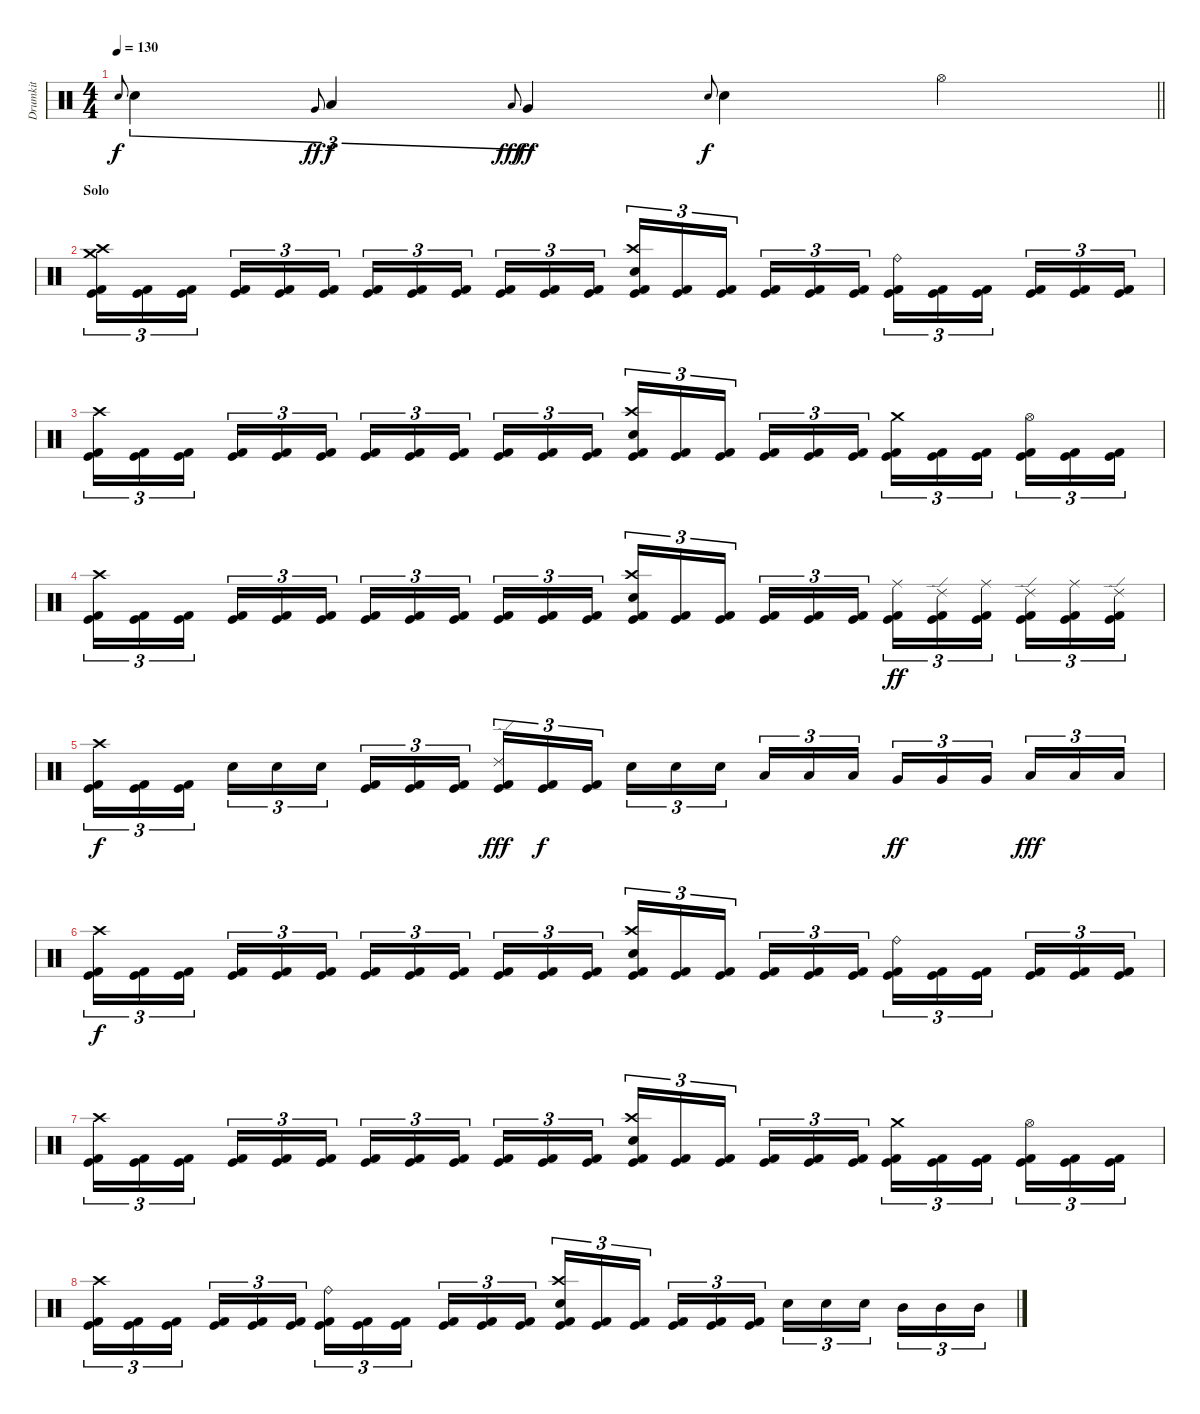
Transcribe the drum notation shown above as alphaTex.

\track ("Drumkit" "Drumkit") {instrument percussion}
\staff {score}
\articulation defaults
\ts (4 4)
\tempo 130
\clef neutral
\barLineRight lightlight
\ks c "Electric Snare (hit)".8{gr onbeat dy f} "Electric Snare (hit)".4{tu (3 2)} "Very Low Tom (hit)".8{gr onbeat dy ff} "Low Tom (hit)".4{tu (3 2) dy f} "Low Floor Tom (hit)".8{gr onbeat dy fff} "Very Low Tom (hit)".4{tu (3 2) dy ff} "Electric Snare (hit)".8{gr onbeat dy f} "Electric Snare (hit)".4 "Hi-Hat (open)".4
|
\section ("" "Solo")
("Crash high (hit)" "Crash medium (hit)" "Kick (hit)" "Kick (hit) 2").16{tu (3 2)} ("Kick (hit)" "Kick (hit) 2").16{tu (3 2)} ("Kick (hit)" "Kick (hit) 2").16{tu (3 2) beam splitsecondary} ("Kick (hit)" "Kick (hit) 2").16{tu (3 2)} ("Kick (hit)" "Kick (hit) 2").16{tu (3 2)} ("Kick (hit)" "Kick (hit) 2").16{tu (3 2)} ("Kick (hit)" "Kick (hit) 2").16{tu (3 2)} ("Kick (hit)" "Kick (hit) 2").16{tu (3 2)} ("Kick (hit)" "Kick (hit) 2").16{tu (3 2) beam splitsecondary} ("Kick (hit)" "Kick (hit) 2").16{tu (3 2)} ("Kick (hit)" "Kick (hit) 2").16{tu (3 2)} ("Kick (hit)" "Kick (hit) 2").16{tu (3 2)} ("Crash high (hit)" "Electric Snare (hit)" "Kick (hit)" "Kick (hit) 2").16{tu (3 2)} ("Kick (hit)" "Kick (hit) 2").16{tu (3 2)} ("Kick (hit)" "Kick (hit) 2").16{tu (3 2) beam splitsecondary} ("Kick (hit)" "Kick (hit) 2").16{tu (3 2)} ("Kick (hit)" "Kick (hit) 2").16{tu (3 2)} ("Kick (hit)" "Kick (hit) 2").16{tu (3 2)} ("Ride (bell)" "Kick (hit)" "Kick (hit) 2").16{tu (3 2)} ("Kick (hit)" "Kick (hit) 2").16{tu (3 2)} ("Kick (hit)" "Kick (hit) 2").16{tu (3 2) beam splitsecondary} ("Kick (hit)" "Kick (hit) 2").16{tu (3 2)} ("Kick (hit)" "Kick (hit) 2").16{tu (3 2)} ("Kick (hit)" "Kick (hit) 2").16{tu (3 2)} |
("Crash high (hit)" "Kick (hit)" "Kick (hit) 2").16{tu (3 2)} ("Kick (hit)" "Kick (hit) 2").16{tu (3 2)} ("Kick (hit)" "Kick (hit) 2").16{tu (3 2) beam splitsecondary} ("Kick (hit)" "Kick (hit) 2").16{tu (3 2)} ("Kick (hit)" "Kick (hit) 2").16{tu (3 2)} ("Kick (hit)" "Kick (hit) 2").16{tu (3 2)} ("Kick (hit)" "Kick (hit) 2").16{tu (3 2)} ("Kick (hit)" "Kick (hit) 2").16{tu (3 2)} ("Kick (hit)" "Kick (hit) 2").16{tu (3 2) beam splitsecondary} ("Kick (hit)" "Kick (hit) 2").16{tu (3 2)} ("Kick (hit)" "Kick (hit) 2").16{tu (3 2)} ("Kick (hit)" "Kick (hit) 2").16{tu (3 2)} ("Crash high (hit)" "Electric Snare (hit)" "Kick (hit)" "Kick (hit) 2").16{tu (3 2)} ("Kick (hit)" "Kick (hit) 2").16{tu (3 2)} ("Kick (hit)" "Kick (hit) 2").16{tu (3 2) beam splitsecondary} ("Kick (hit)" "Kick (hit) 2").16{tu (3 2)} ("Kick (hit)" "Kick (hit) 2").16{tu (3 2)} ("Kick (hit)" "Kick (hit) 2").16{tu (3 2)} ("Crash medium (hit)" "Kick (hit)" "Kick (hit) 2").16{tu (3 2)} ("Kick (hit)" "Kick (hit) 2").16{tu (3 2)} ("Kick (hit)" "Kick (hit) 2").16{tu (3 2) beam splitsecondary} ("Hi-Hat (open)" "Kick (hit)" "Kick (hit) 2").16{tu (3 2)} ("Kick (hit)" "Kick (hit) 2").16{tu (3 2)} ("Kick (hit)" "Kick (hit) 2").16{tu (3 2)} |
("Crash high (hit)" "Kick (hit)" "Kick (hit) 2").16{tu (3 2)} ("Kick (hit)" "Kick (hit) 2").16{tu (3 2)} ("Kick (hit)" "Kick (hit) 2").16{tu (3 2) beam splitsecondary} ("Kick (hit)" "Kick (hit) 2").16{tu (3 2)} ("Kick (hit)" "Kick (hit) 2").16{tu (3 2)} ("Kick (hit)" "Kick (hit) 2").16{tu (3 2)} ("Kick (hit)" "Kick (hit) 2").16{tu (3 2)} ("Kick (hit)" "Kick (hit) 2").16{tu (3 2)} ("Kick (hit)" "Kick (hit) 2").16{tu (3 2) beam splitsecondary} ("Kick (hit)" "Kick (hit) 2").16{tu (3 2)} ("Kick (hit)" "Kick (hit) 2").16{tu (3 2)} ("Kick (hit)" "Kick (hit) 2").16{tu (3 2)} ("Crash high (hit)" "Electric Snare (hit)" "Kick (hit)" "Kick (hit) 2").16{tu (3 2)} ("Kick (hit)" "Kick (hit) 2").16{tu (3 2)} ("Kick (hit)" "Kick (hit) 2").16{tu (3 2) beam splitsecondary} ("Kick (hit)" "Kick (hit) 2").16{tu (3 2)} ("Kick (hit)" "Kick (hit) 2").16{tu (3 2)} ("Kick (hit)" "Kick (hit) 2").16{tu (3 2)} ("Ride (middle)" "Kick (hit)" "Kick (hit) 2").16{tu (3 2) dy ff} ("Ride (edge) 2" "Kick (hit)" "Kick (hit) 2").16{tu (3 2)} ("Ride (middle)" "Kick (hit)" "Kick (hit) 2").16{tu (3 2) beam splitsecondary} ("Ride (edge) 2" "Kick (hit)" "Kick (hit) 2").16{tu (3 2)} ("Ride (middle)" "Kick (hit)" "Kick (hit) 2").16{tu (3 2)} ("Ride (edge) 2" "Kick (hit)" "Kick (hit) 2").16{tu (3 2)} |
("Crash high (hit)" "Kick (hit)" "Kick (hit) 2").16{tu (3 2) dy f} ("Kick (hit)" "Kick (hit) 2").16{tu (3 2)} ("Kick (hit)" "Kick (hit) 2").16{tu (3 2) beam splitsecondary} "Electric Snare (hit)".16{tu (3 2)} "Electric Snare (hit)".16{tu (3 2)} "Electric Snare (hit)".16{tu (3 2)} ("Kick (hit)" "Kick (hit) 2").16{tu (3 2)} ("Kick (hit)" "Kick (hit) 2").16{tu (3 2)} ("Kick (hit)" "Kick (hit) 2").16{tu (3 2) beam splitsecondary} ("Ride (edge) 2" "Kick (hit)" "Kick (hit) 2").16{tu (3 2) dy fff} ("Kick (hit)" "Kick (hit) 2").16{tu (3 2) dy f} ("Kick (hit)" "Kick (hit) 2").16{tu (3 2)} "Electric Snare (hit)".16{tu (3 2)} "Electric Snare (hit)".16{tu (3 2)} "Electric Snare (hit)".16{tu (3 2) beam splitsecondary} "Low Tom (hit)".16{tu (3 2)} "Low Tom (hit)".16{tu (3 2)} "Low Tom (hit)".16{tu (3 2)} "Very Low Tom (hit)".16{tu (3 2) dy ff} "Very Low Tom (hit)".16{tu (3 2)} "Very Low Tom (hit)".16{tu (3 2) beam splitsecondary} "Low Floor Tom (hit)".16{tu (3 2) dy fff} "Low Floor Tom (hit)".16{tu (3 2)} "Low Floor Tom (hit)".16{tu (3 2)} |
("Crash high (hit)" "Kick (hit)" "Kick (hit) 2").16{tu (3 2) dy f} ("Kick (hit)" "Kick (hit) 2").16{tu (3 2)} ("Kick (hit)" "Kick (hit) 2").16{tu (3 2) beam splitsecondary} ("Kick (hit)" "Kick (hit) 2").16{tu (3 2)} ("Kick (hit)" "Kick (hit) 2").16{tu (3 2)} ("Kick (hit)" "Kick (hit) 2").16{tu (3 2)} ("Kick (hit)" "Kick (hit) 2").16{tu (3 2)} ("Kick (hit)" "Kick (hit) 2").16{tu (3 2)} ("Kick (hit)" "Kick (hit) 2").16{tu (3 2) beam splitsecondary} ("Kick (hit)" "Kick (hit) 2").16{tu (3 2)} ("Kick (hit)" "Kick (hit) 2").16{tu (3 2)} ("Kick (hit)" "Kick (hit) 2").16{tu (3 2)} ("Crash high (hit)" "Electric Snare (hit)" "Kick (hit)" "Kick (hit) 2").16{tu (3 2)} ("Kick (hit)" "Kick (hit) 2").16{tu (3 2)} ("Kick (hit)" "Kick (hit) 2").16{tu (3 2) beam splitsecondary} ("Kick (hit)" "Kick (hit) 2").16{tu (3 2)} ("Kick (hit)" "Kick (hit) 2").16{tu (3 2)} ("Kick (hit)" "Kick (hit) 2").16{tu (3 2)} ("Ride (bell)" "Kick (hit)" "Kick (hit) 2").16{tu (3 2)} ("Kick (hit)" "Kick (hit) 2").16{tu (3 2)} ("Kick (hit)" "Kick (hit) 2").16{tu (3 2) beam splitsecondary} ("Kick (hit)" "Kick (hit) 2").16{tu (3 2)} ("Kick (hit)" "Kick (hit) 2").16{tu (3 2)} ("Kick (hit)" "Kick (hit) 2").16{tu (3 2)} |
("Crash high (hit)" "Kick (hit)" "Kick (hit) 2").16{tu (3 2)} ("Kick (hit)" "Kick (hit) 2").16{tu (3 2)} ("Kick (hit)" "Kick (hit) 2").16{tu (3 2) beam splitsecondary} ("Kick (hit)" "Kick (hit) 2").16{tu (3 2)} ("Kick (hit)" "Kick (hit) 2").16{tu (3 2)} ("Kick (hit)" "Kick (hit) 2").16{tu (3 2)} ("Kick (hit)" "Kick (hit) 2").16{tu (3 2)} ("Kick (hit)" "Kick (hit) 2").16{tu (3 2)} ("Kick (hit)" "Kick (hit) 2").16{tu (3 2) beam splitsecondary} ("Kick (hit)" "Kick (hit) 2").16{tu (3 2)} ("Kick (hit)" "Kick (hit) 2").16{tu (3 2)} ("Kick (hit)" "Kick (hit) 2").16{tu (3 2)} ("Crash high (hit)" "Electric Snare (hit)" "Kick (hit)" "Kick (hit) 2").16{tu (3 2)} ("Kick (hit)" "Kick (hit) 2").16{tu (3 2)} ("Kick (hit)" "Kick (hit) 2").16{tu (3 2) beam splitsecondary} ("Kick (hit)" "Kick (hit) 2").16{tu (3 2)} ("Kick (hit)" "Kick (hit) 2").16{tu (3 2)} ("Kick (hit)" "Kick (hit) 2").16{tu (3 2)} ("Crash medium (hit)" "Kick (hit)" "Kick (hit) 2").16{tu (3 2)} ("Kick (hit)" "Kick (hit) 2").16{tu (3 2)} ("Kick (hit)" "Kick (hit) 2").16{tu (3 2) beam splitsecondary} ("Hi-Hat (open)" "Kick (hit)" "Kick (hit) 2").16{tu (3 2)} ("Kick (hit)" "Kick (hit) 2").16{tu (3 2)} ("Kick (hit)" "Kick (hit) 2").16{tu (3 2)} |
("Crash high (hit)" "Kick (hit)" "Kick (hit) 2").16{tu (3 2)} ("Kick (hit)" "Kick (hit) 2").16{tu (3 2)} ("Kick (hit)" "Kick (hit) 2").16{tu (3 2) beam splitsecondary} ("Kick (hit)" "Kick (hit) 2").16{tu (3 2)} ("Kick (hit)" "Kick (hit) 2").16{tu (3 2)} ("Kick (hit)" "Kick (hit) 2").16{tu (3 2)} ("Ride (bell)" "Kick (hit)" "Kick (hit) 2").16{tu (3 2)} ("Kick (hit)" "Kick (hit) 2").16{tu (3 2)} ("Kick (hit)" "Kick (hit) 2").16{tu (3 2) beam splitsecondary} ("Kick (hit)" "Kick (hit) 2").16{tu (3 2)} ("Kick (hit)" "Kick (hit) 2").16{tu (3 2)} ("Kick (hit)" "Kick (hit) 2").16{tu (3 2)} ("Crash high (hit)" "Electric Snare (hit)" "Kick (hit)" "Kick (hit) 2").16{tu (3 2)} ("Kick (hit)" "Kick (hit) 2").16{tu (3 2)} ("Kick (hit)" "Kick (hit) 2").16{tu (3 2) beam splitsecondary} ("Kick (hit)" "Kick (hit) 2").16{tu (3 2)} ("Kick (hit)" "Kick (hit) 2").16{tu (3 2)} ("Kick (hit)" "Kick (hit) 2").16{tu (3 2)} "Electric Snare (hit)".16{tu (3 2)} "Electric Snare (hit)".16{tu (3 2)} "Electric Snare (hit)".16{tu (3 2) beam splitsecondary} "Mid Tom (hit)".16{tu (3 2)} "Mid Tom (hit)".16{tu (3 2)} "Mid Tom (hit)".16{tu (3 2)}
